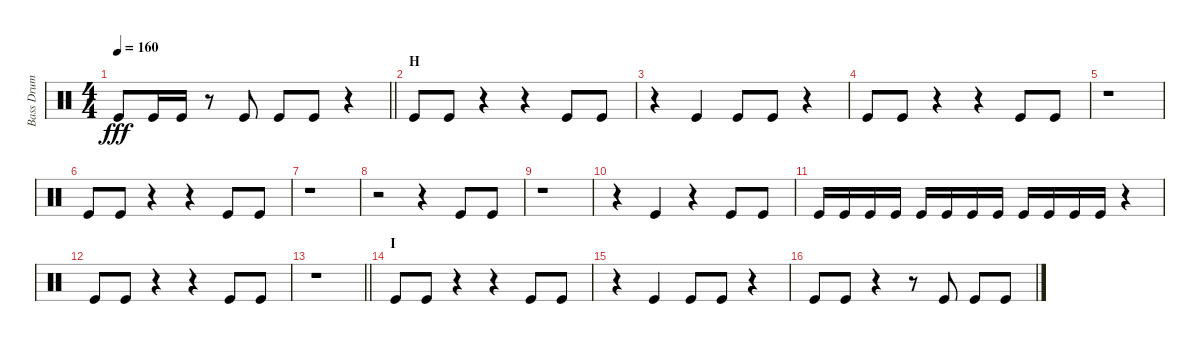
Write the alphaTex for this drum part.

\track ("Bass Drum" "Bass Drum") {instrument percussion}
\staff {score}
\articulation defaults
\ts (4 4)
\tempo 160
\clef neutral
\barLineRight lightlight
\ks c "Kick (hit)".8{dy fff} "Kick (hit)".16 "Kick (hit)".16
r.8 "Kick (hit)".8 "Kick (hit)".8 "Kick (hit)".8 r.4 |
\section ("" "H")
"Kick (hit)".8 "Kick (hit)".8 r.4 r.4 "Kick (hit)".8 "Kick (hit)".8 |
r.4 "Kick (hit)".4 "Kick (hit)".8 "Kick (hit)".8 r.4 |
"Kick (hit)".8 "Kick (hit)".8 r.4 r.4 "Kick (hit)".8 "Kick (hit)".8 |
r.1 |
"Kick (hit)".8 "Kick (hit)".8 r.4 r.4 "Kick (hit)".8 "Kick (hit)".8 |
r.1 |
r.2 r.4 "Kick (hit)".8 "Kick (hit)".8 |
r.1 |
r.4 "Kick (hit)".4 r.4 "Kick (hit)".8 "Kick (hit)".8 |
"Kick (hit)".16 "Kick (hit)".16 "Kick (hit)".16 "Kick (hit)".16 "Kick (hit)".16 "Kick (hit)".16 "Kick (hit)".16 "Kick (hit)".16 "Kick (hit)".16 "Kick (hit)".16 "Kick (hit)".16 "Kick (hit)".16 r.4 |
"Kick (hit)".8 "Kick (hit)".8 r.4 r.4 "Kick (hit)".8 "Kick (hit)".8 |
\barLineRight lightlight
r.1 |
\section ("" "I")
"Kick (hit)".8 "Kick (hit)".8 r.4 r.4 "Kick (hit)".8 "Kick (hit)".8 |
r.4 "Kick (hit)".4 "Kick (hit)".8 "Kick (hit)".8 r.4 |
"Kick (hit)".8 "Kick (hit)".8 r.4 r.8 "Kick (hit)".8 "Kick (hit)".8 "Kick (hit)".8
